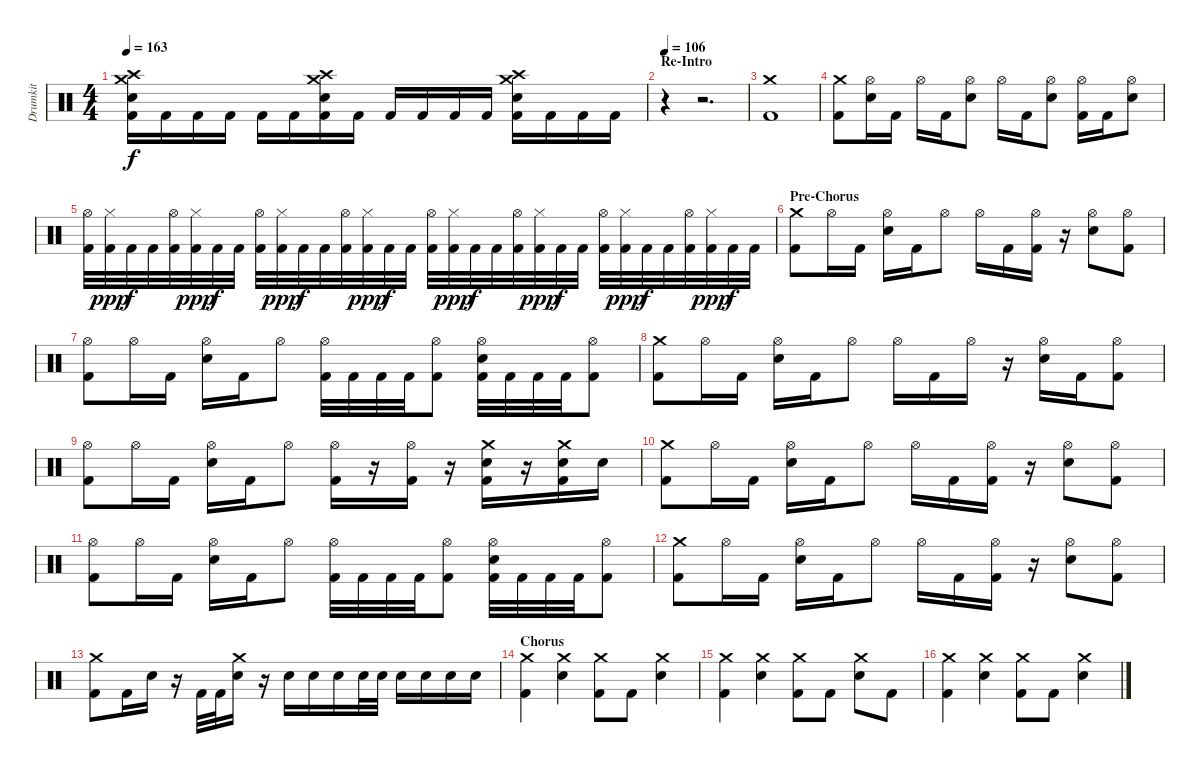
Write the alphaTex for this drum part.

\track ("Drumkit" "Drumkit") {instrument percussion}
\staff {score}
\articulation defaults
\ts (4 4)
\tempo 163
\clef neutral
\ks c
("Crash medium (hit)" "Crash high (hit)" "Snare (hit) 2" "Kick (hit) 2").16{dy f} "Kick (hit) 2".16 "Kick (hit) 2".16 "Kick (hit) 2".16 "Kick (hit) 2".16 "Kick (hit) 2".16 ("Crash medium (hit)" "Crash high (hit)" "Snare (hit) 2" "Kick (hit) 2").16 "Kick (hit) 2".16 "Kick (hit) 2".16 "Kick (hit) 2".16 "Kick (hit) 2".16 "Kick (hit) 2".16 ("Crash medium (hit)" "Crash high (hit)" "Snare (hit) 2" "Kick (hit) 2").16 "Kick (hit) 2".16 "Kick (hit) 2".16 "Kick (hit) 2".16 |
\section ("" "Re-Intro")
\tempo 106
r.4 r.2{d} |
("Crash medium (hit)" "Kick (hit) 2").1 |
("Crash medium (hit)" "Kick (hit) 2").8 ("Hi-Hat (open)" "Snare (hit) 2").16 "Kick (hit) 2".16 "Hi-Hat (open)".16 "Kick (hit) 2".16 ("Hi-Hat (open)" "Snare (hit) 2").8 "Hi-Hat (open)".16 "Kick (hit) 2".16 ("Hi-Hat (open)" "Snare (hit) 2").8 ("Hi-Hat (open)" "Kick (hit) 2").16 "Kick (hit) 2".16 ("Hi-Hat (open)" "Snare (hit) 2").8 |
("Hi-Hat (open)" "Kick (hit) 2").32 ("Hi-Hat (closed)" "Kick (hit) 2").32{dy ppp} "Kick (hit) 2".32{dy f} "Kick (hit) 2".32 ("Hi-Hat (open)" "Kick (hit) 2").32 ("Hi-Hat (closed)" "Kick (hit) 2").32{dy ppp} "Kick (hit) 2".32{dy f} "Kick (hit) 2".32 ("Hi-Hat (open)" "Kick (hit) 2").32 ("Hi-Hat (closed)" "Kick (hit) 2").32{dy ppp} "Kick (hit) 2".32{dy f} "Kick (hit) 2".32 ("Hi-Hat (open)" "Kick (hit) 2").32 ("Hi-Hat (closed)" "Kick (hit) 2").32{dy ppp} "Kick (hit) 2".32{dy f} "Kick (hit) 2".32 ("Hi-Hat (open)" "Kick (hit) 2").32 ("Hi-Hat (closed)" "Kick (hit) 2").32{dy ppp} "Kick (hit) 2".32{dy f} "Kick (hit) 2".32 ("Hi-Hat (open)" "Kick (hit) 2").32 ("Hi-Hat (closed)" "Kick (hit) 2").32{dy ppp} "Kick (hit) 2".32{dy f} "Kick (hit) 2".32 ("Hi-Hat (open)" "Kick (hit) 2").32 ("Hi-Hat (closed)" "Kick (hit) 2").32{dy ppp} "Kick (hit) 2".32{dy f} "Kick (hit) 2".32 ("Hi-Hat (open)" "Kick (hit) 2").32 ("Hi-Hat (closed)" "Kick (hit) 2").32{dy ppp} "Kick (hit) 2".32{dy f} "Kick (hit) 2".32 |
\section ("" "Pre-Chorus")
("Crash medium (hit)" "Kick (hit) 2").8 "Hi-Hat (open)".16 "Kick (hit) 2".16 ("Hi-Hat (open)" "Snare (hit) 2").16 "Kick (hit) 2".16 "Hi-Hat (open)".8 "Hi-Hat (open)".16 "Kick (hit) 2".16 ("Hi-Hat (open)" "Kick (hit) 2").16 r.16 ("Hi-Hat (open)" "Snare (hit) 2").8 ("Hi-Hat (open)" "Kick (hit) 2").8 |
("Hi-Hat (open)" "Kick (hit) 2").8 "Hi-Hat (open)".16 "Kick (hit) 2".16 ("Hi-Hat (open)" "Snare (hit) 2").16 "Kick (hit) 2".16 "Hi-Hat (open)".8 ("Hi-Hat (open)" "Kick (hit) 2").32 "Kick (hit) 2".32 "Kick (hit) 2".32 "Kick (hit) 2".32 ("Hi-Hat (open)" "Kick (hit) 2").8 ("Hi-Hat (open)" "Snare (hit) 2" "Kick (hit) 2").32 "Kick (hit) 2".32 "Kick (hit) 2".32 "Kick (hit) 2".32 ("Hi-Hat (open)" "Kick (hit) 2").8 |
("Crash medium (hit)" "Kick (hit) 2").8 "Hi-Hat (open)".16 "Kick (hit) 2".16 ("Hi-Hat (open)" "Snare (hit) 2").16 "Kick (hit) 2".16 "Hi-Hat (open)".8 "Hi-Hat (open)".16 "Kick (hit) 2".16 "Hi-Hat (open)".16 r.16 ("Hi-Hat (open)" "Snare (hit) 2").16 "Kick (hit) 2".16 ("Hi-Hat (open)" "Kick (hit) 2").8 |
("Hi-Hat (open)" "Kick (hit) 2").8 "Hi-Hat (open)".16 "Kick (hit) 2".16 ("Hi-Hat (open)" "Snare (hit) 2").16 "Kick (hit) 2".16 "Hi-Hat (open)".8 ("Hi-Hat (open)" "Kick (hit) 2").16 r.16 ("Hi-Hat (open)" "Kick (hit) 2").16 r.16 ("Crash medium (hit)" "Snare (hit) 2" "Kick (hit) 2").16 r.16 ("Crash medium (hit)" "Snare (hit) 2" "Kick (hit) 2").16 "Snare (hit) 2".16 |
("Crash medium (hit)" "Kick (hit) 2").8 "Hi-Hat (open)".16 "Kick (hit) 2".16 ("Hi-Hat (open)" "Snare (hit) 2").16 "Kick (hit) 2".16 "Hi-Hat (open)".8 "Hi-Hat (open)".16 "Kick (hit) 2".16 ("Hi-Hat (open)" "Kick (hit) 2").16 r.16 ("Hi-Hat (open)" "Snare (hit) 2").8 ("Hi-Hat (open)" "Kick (hit) 2").8 |
("Hi-Hat (open)" "Kick (hit) 2").8 "Hi-Hat (open)".16 "Kick (hit) 2".16 ("Hi-Hat (open)" "Snare (hit) 2").16 "Kick (hit) 2".16 "Hi-Hat (open)".8 ("Hi-Hat (open)" "Kick (hit) 2").32 "Kick (hit) 2".32 "Kick (hit) 2".32 "Kick (hit) 2".32 ("Hi-Hat (open)" "Kick (hit) 2").8 ("Hi-Hat (open)" "Snare (hit) 2" "Kick (hit) 2").32 "Kick (hit) 2".32 "Kick (hit) 2".32 "Kick (hit) 2".32 ("Hi-Hat (open)" "Kick (hit) 2").8 |
("Crash medium (hit)" "Kick (hit) 2").8 "Hi-Hat (open)".16 "Kick (hit) 2".16 ("Hi-Hat (open)" "Snare (hit) 2").16 "Kick (hit) 2".16 "Hi-Hat (open)".8 "Hi-Hat (open)".16 "Kick (hit) 2".16 ("Hi-Hat (open)" "Kick (hit) 2").16 r.16 ("Hi-Hat (open)" "Snare (hit) 2").8 ("Hi-Hat (open)" "Kick (hit) 2").8 |
("Crash medium (hit)" "Kick (hit) 2").8 "Kick (hit) 2".16 "Snare (hit) 2".16 r.16 "Kick (hit) 2".32 "Kick (hit) 2".32 ("Crash medium (hit)" "Snare (hit) 2").16 r.16 "Snare (hit) 2".16 "Snare (hit) 2".16 "Snare (hit) 2".16 "Snare (hit) 2".32 "Snare (hit) 2".32 "Snare (hit) 2".16 "Snare (hit) 2".16 "Snare (hit) 2".16 "Snare (hit) 2".16 |
\section ("" "Chorus")
("Crash medium (hit)" "Kick (hit) 2").4 ("Crash medium (hit)" "Snare (hit) 2").4 ("Crash medium (hit)" "Kick (hit) 2").8 "Kick (hit) 2".8 ("Crash medium (hit)" "Snare (hit) 2").4 |
("Crash medium (hit)" "Kick (hit) 2").4 ("Crash medium (hit)" "Snare (hit) 2").4 ("Crash medium (hit)" "Kick (hit) 2").8 "Kick (hit) 2".8 ("Crash medium (hit)" "Snare (hit) 2").8 "Kick (hit) 2".8 |
("Crash medium (hit)" "Kick (hit) 2").4 ("Crash medium (hit)" "Snare (hit) 2").4 ("Crash medium (hit)" "Kick (hit) 2").8 "Kick (hit) 2".8 ("Crash medium (hit)" "Snare (hit) 2").4
